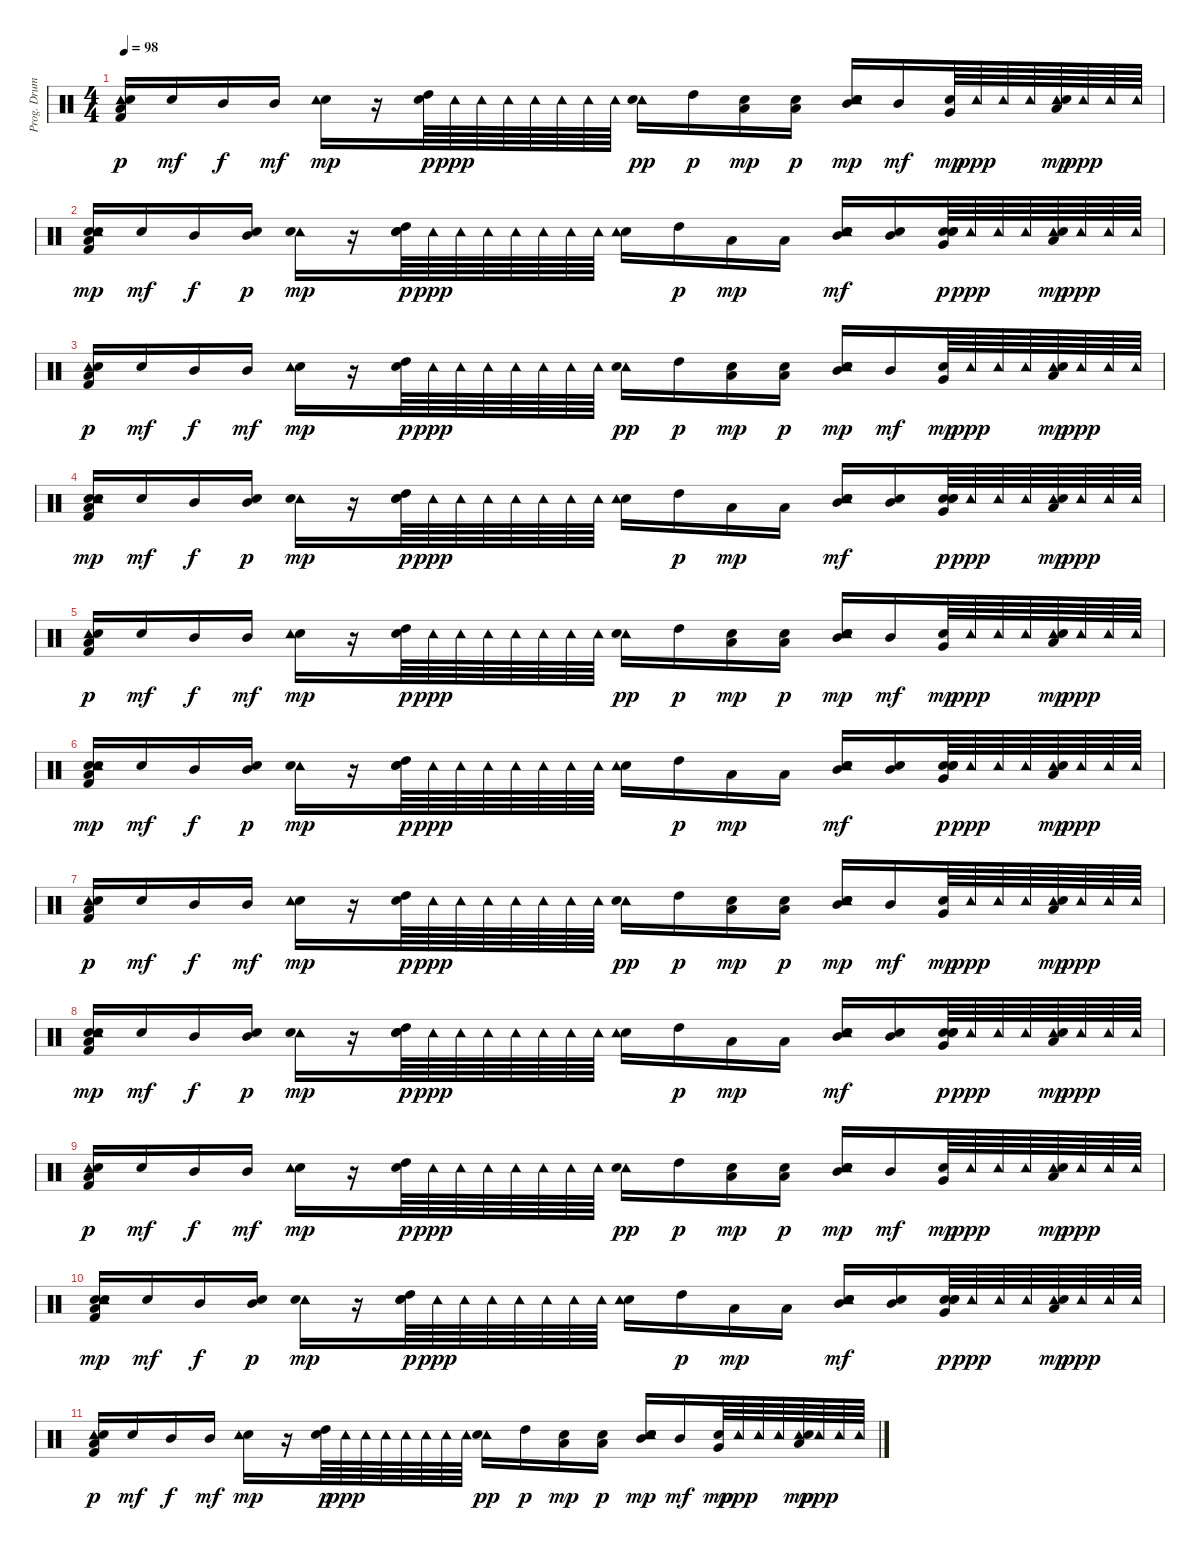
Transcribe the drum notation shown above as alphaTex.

\track ("Prog. Drums" "Prog. Drum") {instrument percussion}
\staff {score}
\articulation defaults
\ts (4 4)
\tempo 98
\clef neutral
\ks c
("Tambourine (hit)" "Snare (hit)" "Low Floor Tom (hit)" "Kick (hit) 2").16{dy p} "Snare (hit)".16{dy mf} "Mid Tom (hit)".16{dy f} "Mid Tom (hit)".16{dy mf} ("Snare (hit) 2" "Tambourine (hit)").16{dy mp} r.16 ("High Tom (hit)" "Snare (hit)").64{dy p} "Tambourine (hit)".64{dy ppp} "Tambourine (hit)".64 "Tambourine (hit)".64 "Tambourine (hit)".64 "Tambourine (hit)".64 "Tambourine (hit)".64 "Tambourine (hit)".64 ("Tambourine (hit)" "Snare (hit) 2").16{dy pp} "High Tom (hit)".16{dy p} ("Snare (hit)" "Low Tom (hit)").16{dy mp} ("Low Tom (hit)" "Snare (hit)").16{dy p} ("Snare (hit) 2" "Mid Tom (hit)" "Snare (hit)" "Tambourine (hit)").16{dy mp} "Mid Tom (hit)".16{dy mf} ("Snare (hit)" "Very Low Tom (hit)").64{dy mp} "Tambourine (hit)".64{dy ppp} "Tambourine (hit)".64 "Tambourine (hit)".64 ("Tambourine (hit)" "Snare (hit) 2" "Low Tom (hit)").64{dy mp} "Tambourine (hit)".64{dy ppp} "Tambourine (hit)".64 "Tambourine (hit)".64 |
("Snare (hit)" "Snare (hit)" "Tambourine (hit)" "Kick (hit) 2" "Low Floor Tom (hit)").16{dy mp} "Snare (hit)".16{dy mf} "Mid Tom (hit)".16{dy f} ("Mid Tom (hit)" "Snare (hit)").16{dy p} ("Tambourine (hit)" "Snare (hit) 2").16{dy mp} r.16 ("High Tom (hit)" "Snare (hit)" "Snare (hit)").64{dy p} "Tambourine (hit)".64{dy ppp} "Tambourine (hit)".64 "Tambourine (hit)".64 "Tambourine (hit)".64 "Tambourine (hit)".64 "Tambourine (hit)".64 "Tambourine (hit)".64 ("Snare (hit) 2" "Tambourine (hit)").16 "High Tom (hit)".16{dy p} "Low Tom (hit)".16{dy mp} "Low Tom (hit)".16 ("Tambourine (hit)" "Snare (hit)" "Snare (hit) 2" "Mid Tom (hit)").16{dy mf} ("Snare (hit) 2" "Mid Tom (hit)").16 ("Snare (hit) 2" "Very Low Tom (hit)" "Snare (hit)" "Snare (hit)").64{dy p} "Tambourine (hit)".64{dy ppp} "Tambourine (hit)".64 "Tambourine (hit)".64 ("Tambourine (hit)" "Snare (hit) 2" "Low Tom (hit)").64{dy mp} "Tambourine (hit)".64{dy ppp} "Tambourine (hit)".64 "Tambourine (hit)".64 |
("Tambourine (hit)" "Snare (hit)" "Low Floor Tom (hit)" "Kick (hit) 2").16{dy p volume 4} "Snare (hit)".16{dy mf} "Mid Tom (hit)".16{dy f} "Mid Tom (hit)".16{dy mf} ("Snare (hit) 2" "Tambourine (hit)").16{dy mp} r.16 ("High Tom (hit)" "Snare (hit)").64{dy p} "Tambourine (hit)".64{dy ppp} "Tambourine (hit)".64 "Tambourine (hit)".64 "Tambourine (hit)".64 "Tambourine (hit)".64 "Tambourine (hit)".64 "Tambourine (hit)".64 ("Tambourine (hit)" "Snare (hit) 2").16{dy pp} "High Tom (hit)".16{dy p} ("Snare (hit)" "Low Tom (hit)").16{dy mp} ("Low Tom (hit)" "Snare (hit)").16{dy p} ("Snare (hit) 2" "Mid Tom (hit)" "Snare (hit)" "Tambourine (hit)").16{dy mp} "Mid Tom (hit)".16{dy mf} ("Snare (hit)" "Very Low Tom (hit)").64{dy mp} "Tambourine (hit)".64{dy ppp} "Tambourine (hit)".64 "Tambourine (hit)".64 ("Tambourine (hit)" "Snare (hit) 2" "Low Tom (hit)").64{dy mp} "Tambourine (hit)".64{dy ppp} "Tambourine (hit)".64 "Tambourine (hit)".64 |
("Snare (hit)" "Snare (hit)" "Tambourine (hit)" "Kick (hit) 2" "Low Floor Tom (hit)").16{dy mp} "Snare (hit)".16{dy mf} "Mid Tom (hit)".16{dy f} ("Mid Tom (hit)" "Snare (hit)").16{dy p} ("Tambourine (hit)" "Snare (hit) 2").16{dy mp} r.16 ("High Tom (hit)" "Snare (hit)" "Snare (hit)").64{dy p} "Tambourine (hit)".64{dy ppp} "Tambourine (hit)".64 "Tambourine (hit)".64 "Tambourine (hit)".64 "Tambourine (hit)".64 "Tambourine (hit)".64 "Tambourine (hit)".64 ("Snare (hit) 2" "Tambourine (hit)").16 "High Tom (hit)".16{dy p} "Low Tom (hit)".16{dy mp} "Low Tom (hit)".16 ("Tambourine (hit)" "Snare (hit)" "Snare (hit) 2" "Mid Tom (hit)").16{dy mf} ("Snare (hit) 2" "Mid Tom (hit)").16 ("Snare (hit) 2" "Very Low Tom (hit)" "Snare (hit)" "Snare (hit)").64{dy p} "Tambourine (hit)".64{dy ppp} "Tambourine (hit)".64 "Tambourine (hit)".64 ("Tambourine (hit)" "Snare (hit) 2" "Low Tom (hit)").64{dy mp} "Tambourine (hit)".64{dy ppp} "Tambourine (hit)".64 "Tambourine (hit)".64 |
("Tambourine (hit)" "Snare (hit)" "Low Floor Tom (hit)" "Kick (hit) 2").16{dy p} "Snare (hit)".16{dy mf} "Mid Tom (hit)".16{dy f} "Mid Tom (hit)".16{dy mf} ("Snare (hit) 2" "Tambourine (hit)").16{dy mp} r.16 ("High Tom (hit)" "Snare (hit)").64{dy p} "Tambourine (hit)".64{dy ppp} "Tambourine (hit)".64 "Tambourine (hit)".64 "Tambourine (hit)".64 "Tambourine (hit)".64 "Tambourine (hit)".64 "Tambourine (hit)".64 ("Tambourine (hit)" "Snare (hit) 2").16{dy pp} "High Tom (hit)".16{dy p} ("Snare (hit)" "Low Tom (hit)").16{dy mp} ("Low Tom (hit)" "Snare (hit)").16{dy p} ("Snare (hit) 2" "Mid Tom (hit)" "Snare (hit)" "Tambourine (hit)").16{dy mp} "Mid Tom (hit)".16{dy mf} ("Snare (hit)" "Very Low Tom (hit)").64{dy mp} "Tambourine (hit)".64{dy ppp} "Tambourine (hit)".64 "Tambourine (hit)".64 ("Tambourine (hit)" "Snare (hit) 2" "Low Tom (hit)").64{dy mp} "Tambourine (hit)".64{dy ppp} "Tambourine (hit)".64 "Tambourine (hit)".64 |
("Snare (hit)" "Snare (hit)" "Tambourine (hit)" "Kick (hit) 2" "Low Floor Tom (hit)").16{dy mp volume 1} "Snare (hit)".16{dy mf} "Mid Tom (hit)".16{dy f} ("Mid Tom (hit)" "Snare (hit)").16{dy p} ("Tambourine (hit)" "Snare (hit) 2").16{dy mp} r.16 ("High Tom (hit)" "Snare (hit)" "Snare (hit)").64{dy p} "Tambourine (hit)".64{dy ppp} "Tambourine (hit)".64 "Tambourine (hit)".64 "Tambourine (hit)".64 "Tambourine (hit)".64 "Tambourine (hit)".64 "Tambourine (hit)".64 ("Snare (hit) 2" "Tambourine (hit)").16 "High Tom (hit)".16{dy p} "Low Tom (hit)".16{dy mp} "Low Tom (hit)".16 ("Tambourine (hit)" "Snare (hit)" "Snare (hit) 2" "Mid Tom (hit)").16{dy mf} ("Snare (hit) 2" "Mid Tom (hit)").16 ("Snare (hit) 2" "Very Low Tom (hit)" "Snare (hit)" "Snare (hit)").64{dy p} "Tambourine (hit)".64{dy ppp} "Tambourine (hit)".64 "Tambourine (hit)".64 ("Tambourine (hit)" "Snare (hit) 2" "Low Tom (hit)").64{dy mp} "Tambourine (hit)".64{dy ppp} "Tambourine (hit)".64 "Tambourine (hit)".64 |
("Tambourine (hit)" "Snare (hit)" "Low Floor Tom (hit)" "Kick (hit) 2").16{dy p} "Snare (hit)".16{dy mf} "Mid Tom (hit)".16{dy f} "Mid Tom (hit)".16{dy mf} ("Snare (hit) 2" "Tambourine (hit)").16{dy mp} r.16 ("High Tom (hit)" "Snare (hit)").64{dy p} "Tambourine (hit)".64{dy ppp} "Tambourine (hit)".64 "Tambourine (hit)".64 "Tambourine (hit)".64 "Tambourine (hit)".64 "Tambourine (hit)".64 "Tambourine (hit)".64 ("Tambourine (hit)" "Snare (hit) 2").16{dy pp} "High Tom (hit)".16{dy p} ("Snare (hit)" "Low Tom (hit)").16{dy mp} ("Low Tom (hit)" "Snare (hit)").16{dy p} ("Snare (hit) 2" "Mid Tom (hit)" "Snare (hit)" "Tambourine (hit)").16{dy mp} "Mid Tom (hit)".16{dy mf} ("Snare (hit)" "Very Low Tom (hit)").64{dy mp} "Tambourine (hit)".64{dy ppp} "Tambourine (hit)".64 "Tambourine (hit)".64 ("Tambourine (hit)" "Snare (hit) 2" "Low Tom (hit)").64{dy mp} "Tambourine (hit)".64{dy ppp} "Tambourine (hit)".64 "Tambourine (hit)".64 |
("Snare (hit)" "Snare (hit)" "Tambourine (hit)" "Kick (hit) 2" "Low Floor Tom (hit)").16{dy mp} "Snare (hit)".16{dy mf} "Mid Tom (hit)".16{dy f} ("Mid Tom (hit)" "Snare (hit)").16{dy p} ("Tambourine (hit)" "Snare (hit) 2").16{dy mp} r.16 ("High Tom (hit)" "Snare (hit)" "Snare (hit)").64{dy p} "Tambourine (hit)".64{dy ppp} "Tambourine (hit)".64 "Tambourine (hit)".64 "Tambourine (hit)".64 "Tambourine (hit)".64 "Tambourine (hit)".64 "Tambourine (hit)".64 ("Snare (hit) 2" "Tambourine (hit)").16 "High Tom (hit)".16{dy p} "Low Tom (hit)".16{dy mp} "Low Tom (hit)".16 ("Tambourine (hit)" "Snare (hit)" "Snare (hit) 2" "Mid Tom (hit)").16{dy mf} ("Snare (hit) 2" "Mid Tom (hit)").16 ("Snare (hit) 2" "Very Low Tom (hit)" "Snare (hit)" "Snare (hit)").64{dy p} "Tambourine (hit)".64{dy ppp} "Tambourine (hit)".64 "Tambourine (hit)".64 ("Tambourine (hit)" "Snare (hit) 2" "Low Tom (hit)").64{dy mp} "Tambourine (hit)".64{dy ppp} "Tambourine (hit)".64 "Tambourine (hit)".64 |
("Tambourine (hit)" "Snare (hit)" "Low Floor Tom (hit)" "Kick (hit) 2").16{dy p} "Snare (hit)".16{dy mf} "Mid Tom (hit)".16{dy f} "Mid Tom (hit)".16{dy mf} ("Snare (hit) 2" "Tambourine (hit)").16{dy mp} r.16 ("High Tom (hit)" "Snare (hit)").64{dy p} "Tambourine (hit)".64{dy ppp} "Tambourine (hit)".64 "Tambourine (hit)".64 "Tambourine (hit)".64 "Tambourine (hit)".64 "Tambourine (hit)".64 "Tambourine (hit)".64 ("Tambourine (hit)" "Snare (hit) 2").16{dy pp} "High Tom (hit)".16{dy p} ("Snare (hit)" "Low Tom (hit)").16{dy mp} ("Low Tom (hit)" "Snare (hit)").16{dy p} ("Snare (hit) 2" "Mid Tom (hit)" "Snare (hit)" "Tambourine (hit)").16{dy mp} "Mid Tom (hit)".16{dy mf} ("Snare (hit)" "Very Low Tom (hit)").64{dy mp} "Tambourine (hit)".64{dy ppp} "Tambourine (hit)".64 "Tambourine (hit)".64 ("Tambourine (hit)" "Snare (hit) 2" "Low Tom (hit)").64{dy mp} "Tambourine (hit)".64{dy ppp} "Tambourine (hit)".64 "Tambourine (hit)".64 |
("Snare (hit)" "Snare (hit)" "Tambourine (hit)" "Kick (hit) 2" "Low Floor Tom (hit)").16{dy mp} "Snare (hit)".16{dy mf} "Mid Tom (hit)".16{dy f} ("Mid Tom (hit)" "Snare (hit)").16{dy p} ("Tambourine (hit)" "Snare (hit) 2").16{dy mp} r.16 ("High Tom (hit)" "Snare (hit)" "Snare (hit)").64{dy p} "Tambourine (hit)".64{dy ppp} "Tambourine (hit)".64 "Tambourine (hit)".64 "Tambourine (hit)".64 "Tambourine (hit)".64 "Tambourine (hit)".64 "Tambourine (hit)".64 ("Snare (hit) 2" "Tambourine (hit)").16 "High Tom (hit)".16{dy p} "Low Tom (hit)".16{dy mp} "Low Tom (hit)".16 ("Tambourine (hit)" "Snare (hit)" "Snare (hit) 2" "Mid Tom (hit)").16{dy mf} ("Snare (hit) 2" "Mid Tom (hit)").16 ("Snare (hit) 2" "Very Low Tom (hit)" "Snare (hit)" "Snare (hit)").64{dy p} "Tambourine (hit)".64{dy ppp} "Tambourine (hit)".64 "Tambourine (hit)".64 ("Tambourine (hit)" "Snare (hit) 2" "Low Tom (hit)").64{dy mp} "Tambourine (hit)".64{dy ppp} "Tambourine (hit)".64 "Tambourine (hit)".64 |
("Tambourine (hit)" "Snare (hit)" "Low Floor Tom (hit)" "Kick (hit) 2").16{dy p} "Snare (hit)".16{dy mf} "Mid Tom (hit)".16{dy f} "Mid Tom (hit)".16{dy mf} ("Snare (hit) 2" "Tambourine (hit)").16{dy mp} r.16 ("High Tom (hit)" "Snare (hit)").64{dy p} "Tambourine (hit)".64{dy ppp} "Tambourine (hit)".64 "Tambourine (hit)".64 "Tambourine (hit)".64 "Tambourine (hit)".64 "Tambourine (hit)".64 "Tambourine (hit)".64 ("Tambourine (hit)" "Snare (hit) 2").16{dy pp} "High Tom (hit)".16{dy p} ("Snare (hit)" "Low Tom (hit)").16{dy mp} ("Low Tom (hit)" "Snare (hit)").16{dy p} ("Snare (hit) 2" "Mid Tom (hit)" "Snare (hit)" "Tambourine (hit)").16{dy mp} "Mid Tom (hit)".16{dy mf} ("Snare (hit)" "Very Low Tom (hit)").64{dy mp} "Tambourine (hit)".64{dy ppp} "Tambourine (hit)".64 "Tambourine (hit)".64 ("Tambourine (hit)" "Snare (hit) 2" "Low Tom (hit)").64{dy mp} "Tambourine (hit)".64{dy ppp} "Tambourine (hit)".64 "Tambourine (hit)".64
